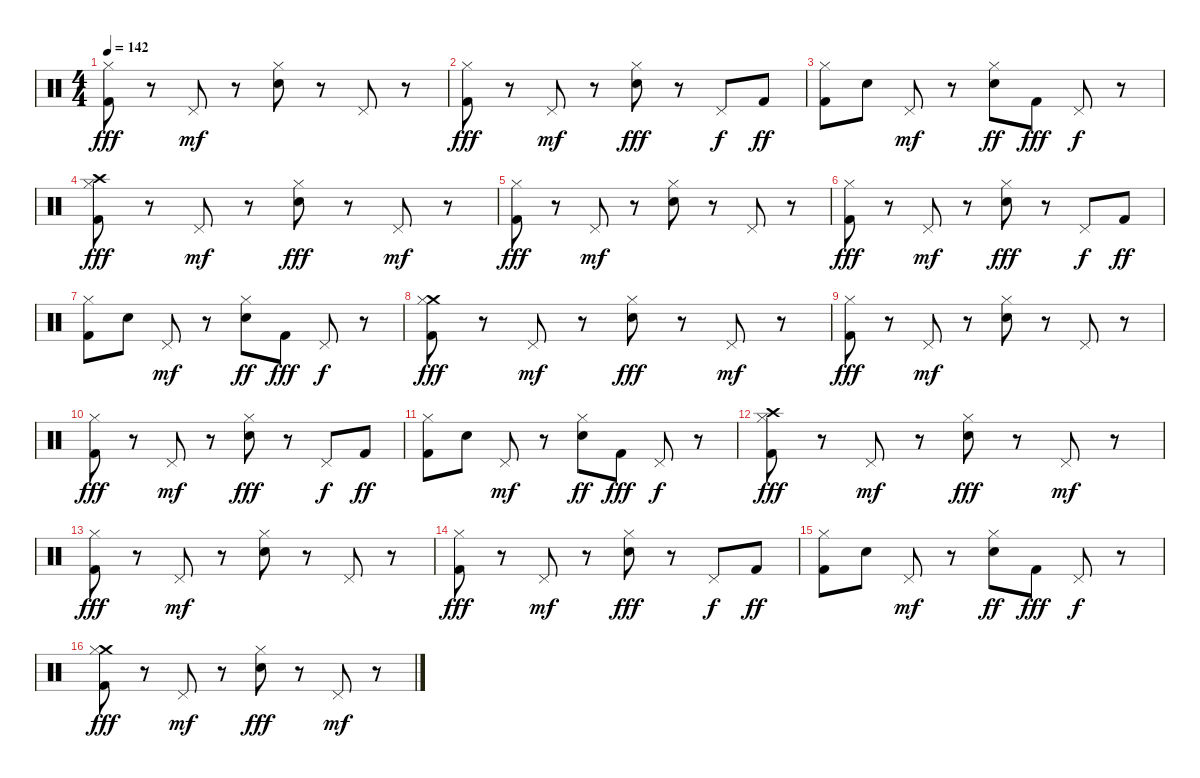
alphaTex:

\track "" {instrument percussion}
\staff {score}
\articulation defaults
\ts (4 4)
\tempo 142
\clef neutral
\ks c
("Kick (hit) 2" "Hi-Hat (closed)").8{dy fff} r.8 "Pedal Hi-Hat (hit)".8{dy mf} r.8 ("Electric Snare (hit)" "Hi-Hat (closed)").8 r.8 "Pedal Hi-Hat (hit)".8 r.8 |
("Kick (hit) 2" "Hi-Hat (closed)").8{dy fff} r.8 "Pedal Hi-Hat (hit)".8{dy mf} r.8 ("Electric Snare (hit)" "Hi-Hat (closed)").8{dy fff} r.8 "Pedal Hi-Hat (hit)".8{dy f} "Kick (hit) 2".8{dy ff} |
("Kick (hit) 2" "Hi-Hat (closed)").8 "Electric Snare (hit)".8 "Pedal Hi-Hat (hit)".8{dy mf} r.8 ("Electric Snare (hit)" "Hi-Hat (closed)").8{dy ff} "Kick (hit) 2".8{dy fff} "Pedal Hi-Hat (hit)".8{dy f} r.8 |
("Crash high (hit)" "Kick (hit) 2" "Hi-Hat (closed)").8{dy fff} r.8 "Pedal Hi-Hat (hit)".8{dy mf} r.8 ("Electric Snare (hit)" "Hi-Hat (closed)").8{dy fff} r.8 "Pedal Hi-Hat (hit)".8{dy mf} r.8 |
("Kick (hit) 2" "Hi-Hat (closed)").8{dy fff} r.8 "Pedal Hi-Hat (hit)".8{dy mf} r.8 ("Electric Snare (hit)" "Hi-Hat (closed)").8 r.8 "Pedal Hi-Hat (hit)".8 r.8 |
("Kick (hit) 2" "Hi-Hat (closed)").8{dy fff} r.8 "Pedal Hi-Hat (hit)".8{dy mf} r.8 ("Electric Snare (hit)" "Hi-Hat (closed)").8{dy fff} r.8 "Pedal Hi-Hat (hit)".8{dy f} "Kick (hit) 2".8{dy ff} |
("Kick (hit) 2" "Hi-Hat (closed)").8 "Electric Snare (hit)".8 "Pedal Hi-Hat (hit)".8{dy mf} r.8 ("Electric Snare (hit)" "Hi-Hat (closed)").8{dy ff} "Kick (hit) 2".8{dy fff} "Pedal Hi-Hat (hit)".8{dy f} r.8 |
("Crash medium (hit)" "Kick (hit) 2" "Hi-Hat (closed)").8{dy fff} r.8 "Pedal Hi-Hat (hit)".8{dy mf} r.8 ("Electric Snare (hit)" "Hi-Hat (closed)").8{dy fff} r.8 "Pedal Hi-Hat (hit)".8{dy mf} r.8 |
("Kick (hit) 2" "Hi-Hat (closed)").8{dy fff} r.8 "Pedal Hi-Hat (hit)".8{dy mf} r.8 ("Electric Snare (hit)" "Hi-Hat (closed)").8 r.8 "Pedal Hi-Hat (hit)".8 r.8 |
("Kick (hit) 2" "Hi-Hat (closed)").8{dy fff} r.8 "Pedal Hi-Hat (hit)".8{dy mf} r.8 ("Electric Snare (hit)" "Hi-Hat (closed)").8{dy fff} r.8 "Pedal Hi-Hat (hit)".8{dy f} "Kick (hit) 2".8{dy ff} |
("Kick (hit) 2" "Hi-Hat (closed)").8 "Electric Snare (hit)".8 "Pedal Hi-Hat (hit)".8{dy mf} r.8 ("Electric Snare (hit)" "Hi-Hat (closed)").8{dy ff} "Kick (hit) 2".8{dy fff} "Pedal Hi-Hat (hit)".8{dy f} r.8 |
("Crash high (hit)" "Kick (hit) 2" "Hi-Hat (closed)").8{dy fff} r.8 "Pedal Hi-Hat (hit)".8{dy mf} r.8 ("Electric Snare (hit)" "Hi-Hat (closed)").8{dy fff} r.8 "Pedal Hi-Hat (hit)".8{dy mf} r.8 |
("Kick (hit) 2" "Hi-Hat (closed)").8{dy fff} r.8 "Pedal Hi-Hat (hit)".8{dy mf} r.8 ("Electric Snare (hit)" "Hi-Hat (closed)").8 r.8 "Pedal Hi-Hat (hit)".8 r.8 |
("Kick (hit) 2" "Hi-Hat (closed)").8{dy fff} r.8 "Pedal Hi-Hat (hit)".8{dy mf} r.8 ("Electric Snare (hit)" "Hi-Hat (closed)").8{dy fff} r.8 "Pedal Hi-Hat (hit)".8{dy f} "Kick (hit) 2".8{dy ff} |
("Kick (hit) 2" "Hi-Hat (closed)").8 "Electric Snare (hit)".8 "Pedal Hi-Hat (hit)".8{dy mf} r.8 ("Electric Snare (hit)" "Hi-Hat (closed)").8{dy ff} "Kick (hit) 2".8{dy fff} "Pedal Hi-Hat (hit)".8{dy f} r.8 |
("Crash medium (hit)" "Kick (hit) 2" "Hi-Hat (closed)").8{dy fff} r.8 "Pedal Hi-Hat (hit)".8{dy mf} r.8 ("Electric Snare (hit)" "Hi-Hat (closed)").8{dy fff} r.8 "Pedal Hi-Hat (hit)".8{dy mf} r.8
